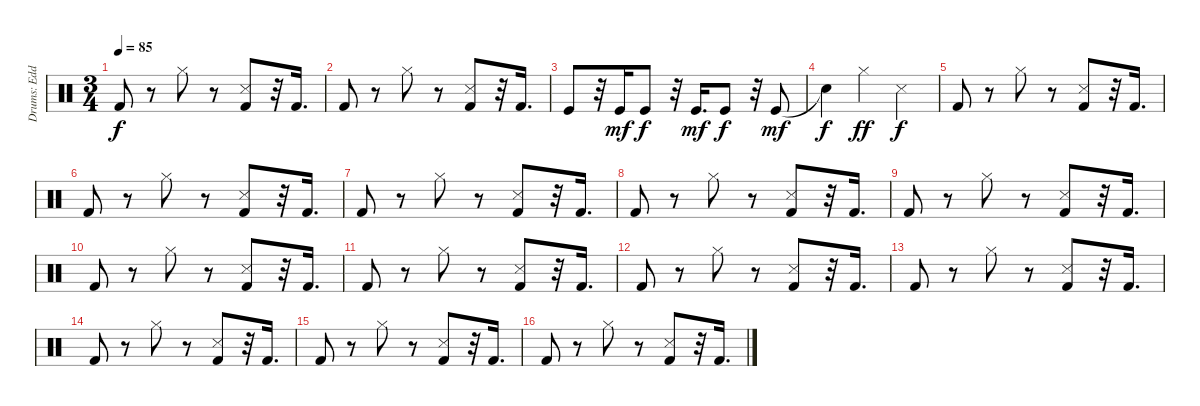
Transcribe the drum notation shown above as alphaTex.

\track ("Drums: Eddie Bayers" "Drums: Edd") {instrument percussion}
\staff {score}
\articulation defaults
\ts (3 4)
\tempo 85
\clef neutral
\ks c "Kick (hit) 2".8{dy f}
r.8 "Hi-Hat (closed)".8 r.8 ("Snare (side stick) 3" "Kick (hit) 2").8 r.32 "Kick (hit) 2".16{d} |
"Kick (hit) 2".8 r.8 "Hi-Hat (closed)".8 r.8 ("Snare (side stick) 3" "Kick (hit) 2").8 r.32 "Kick (hit) 2".16{d} |
"Kick (hit)".8 r.32 "Kick (hit)".16{dy mf} "Kick (hit)".8{dy f} r.32 "Kick (hit)".16{d dy mf} "Kick (hit)".8{dy f} r.32 "Kick (hit)".8{dy mf} |
"Snare (hit)"{t}.4{dy f} "Hi-Hat (closed)".4{dy ff} "Snare (side stick) 3".4{dy f} |
"Kick (hit) 2".8 r.8 "Hi-Hat (closed)".8 r.8 ("Snare (side stick) 3" "Kick (hit) 2").8 r.32 "Kick (hit) 2".16{d} |
"Kick (hit) 2".8 r.8 "Hi-Hat (closed)".8 r.8 ("Snare (side stick) 3" "Kick (hit) 2").8 r.32 "Kick (hit) 2".16{d} |
"Kick (hit) 2".8 r.8 "Hi-Hat (closed)".8 r.8 ("Snare (side stick) 3" "Kick (hit) 2").8 r.32 "Kick (hit) 2".16{d} |
"Kick (hit) 2".8 r.8 "Hi-Hat (closed)".8 r.8 ("Snare (side stick) 3" "Kick (hit) 2").8 r.32 "Kick (hit) 2".16{d} |
"Kick (hit) 2".8 r.8 "Hi-Hat (closed)".8 r.8 ("Snare (side stick) 3" "Kick (hit) 2").8 r.32 "Kick (hit) 2".16{d} |
"Kick (hit) 2".8 r.8 "Hi-Hat (closed)".8 r.8 ("Snare (side stick) 3" "Kick (hit) 2").8 r.32 "Kick (hit) 2".16{d} |
"Kick (hit) 2".8 r.8 "Hi-Hat (closed)".8 r.8 ("Snare (side stick) 3" "Kick (hit) 2").8 r.32 "Kick (hit) 2".16{d} |
"Kick (hit) 2".8 r.8 "Hi-Hat (closed)".8 r.8 ("Snare (side stick) 3" "Kick (hit) 2").8 r.32 "Kick (hit) 2".16{d} |
"Kick (hit) 2".8 r.8 "Hi-Hat (closed)".8 r.8 ("Snare (side stick) 3" "Kick (hit) 2").8 r.32 "Kick (hit) 2".16{d} |
"Kick (hit) 2".8 r.8 "Hi-Hat (closed)".8 r.8 ("Snare (side stick) 3" "Kick (hit) 2").8 r.32 "Kick (hit) 2".16{d} |
"Kick (hit) 2".8 r.8 "Hi-Hat (closed)".8 r.8 ("Snare (side stick) 3" "Kick (hit) 2").8 r.32 "Kick (hit) 2".16{d} |
"Kick (hit) 2".8 r.8 "Hi-Hat (closed)".8 r.8 ("Snare (side stick) 3" "Kick (hit) 2").8 r.32 "Kick (hit) 2".16{d}
